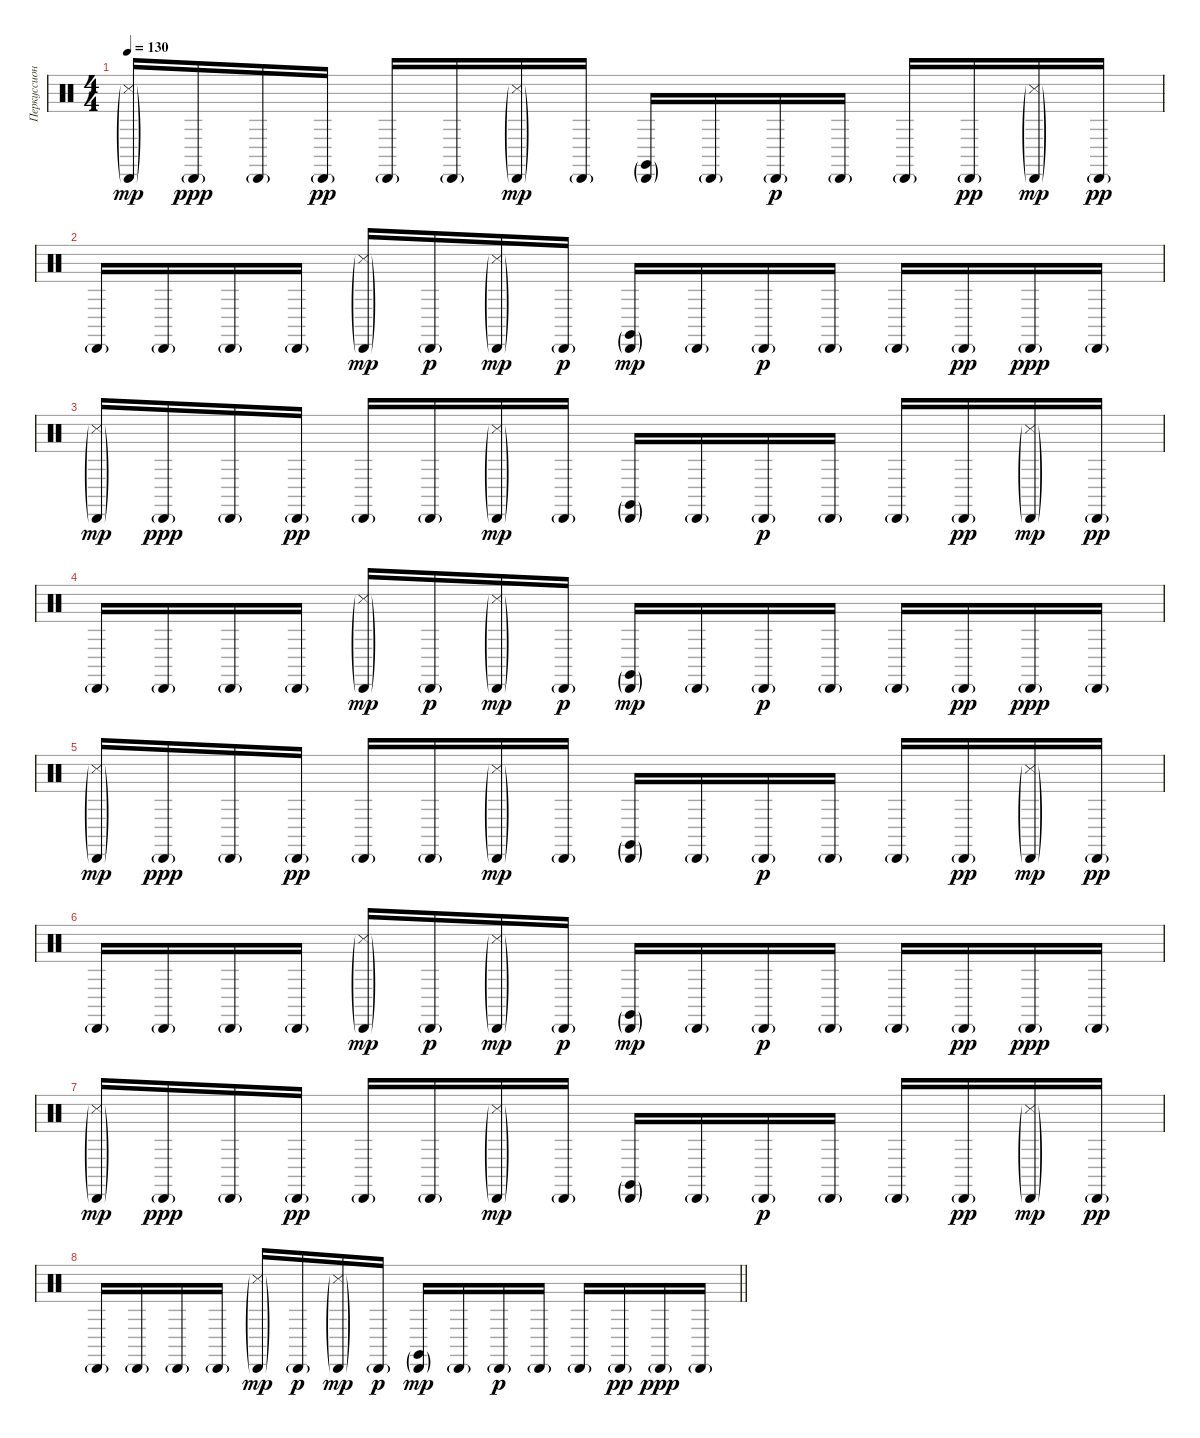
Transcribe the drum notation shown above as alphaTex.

\track ("Перкуссионный Синтез" "Перкуссион") {instrument percussion}
\staff {score}
\articulation defaults
\ts (4 4)
\tempo 130
\clef neutral
\ks c
("Cabasa (hit)"{g} "Metronome (hit)"{g}).16{dy mp} "Cabasa (hit)"{g}.16{dy ppp} "Cabasa (hit)"{g}.16 "Cabasa (hit)"{g}.16{dy pp} "Cabasa (hit)"{g}.16 "Cabasa (hit)"{g}.16 ("Cabasa (hit)"{g} "Metronome (hit)"{g}).16{dy mp} "Cabasa (hit)"{g}.16 ("Cabasa (hit)"{g} "Claves (hit)"{g}).16 "Cabasa (hit)"{g}.16 "Cabasa (hit)"{g}.16{dy p} "Cabasa (hit)"{g}.16 "Cabasa (hit)"{g}.16 "Cabasa (hit)"{g}.16{dy pp} ("Cabasa (hit)"{g} "Metronome (hit)"{g}).16{dy mp} "Cabasa (hit)"{g}.16{dy pp} |
"Cabasa (hit)"{g}.16 "Cabasa (hit)"{g}.16 "Cabasa (hit)"{g}.16 "Cabasa (hit)"{g}.16 ("Cabasa (hit)"{g} "Metronome (hit)"{g}).16{dy mp} "Cabasa (hit)"{g}.16{dy p} ("Cabasa (hit)"{g} "Metronome (hit)"{g}).16{dy mp} "Cabasa (hit)"{g}.16{dy p} ("Cabasa (hit)"{g} "Claves (hit)"{g}).16{dy mp} "Cabasa (hit)"{g}.16 "Cabasa (hit)"{g}.16{dy p} "Cabasa (hit)"{g}.16 "Cabasa (hit)"{g}.16 "Cabasa (hit)"{g}.16{dy pp} "Cabasa (hit)"{g}.16{dy ppp} "Cabasa (hit)"{g}.16 |
("Cabasa (hit)"{g} "Metronome (hit)"{g}).16{dy mp} "Cabasa (hit)"{g}.16{dy ppp} "Cabasa (hit)"{g}.16 "Cabasa (hit)"{g}.16{dy pp} "Cabasa (hit)"{g}.16 "Cabasa (hit)"{g}.16 ("Cabasa (hit)"{g} "Metronome (hit)"{g}).16{dy mp} "Cabasa (hit)"{g}.16 ("Cabasa (hit)"{g} "Claves (hit)"{g}).16 "Cabasa (hit)"{g}.16 "Cabasa (hit)"{g}.16{dy p} "Cabasa (hit)"{g}.16 "Cabasa (hit)"{g}.16 "Cabasa (hit)"{g}.16{dy pp} ("Cabasa (hit)"{g} "Metronome (hit)"{g}).16{dy mp} "Cabasa (hit)"{g}.16{dy pp} |
"Cabasa (hit)"{g}.16 "Cabasa (hit)"{g}.16 "Cabasa (hit)"{g}.16 "Cabasa (hit)"{g}.16 ("Cabasa (hit)"{g} "Metronome (hit)"{g}).16{dy mp} "Cabasa (hit)"{g}.16{dy p} ("Cabasa (hit)"{g} "Metronome (hit)"{g}).16{dy mp} "Cabasa (hit)"{g}.16{dy p} ("Cabasa (hit)"{g} "Claves (hit)"{g}).16{dy mp} "Cabasa (hit)"{g}.16 "Cabasa (hit)"{g}.16{dy p} "Cabasa (hit)"{g}.16 "Cabasa (hit)"{g}.16 "Cabasa (hit)"{g}.16{dy pp} "Cabasa (hit)"{g}.16{dy ppp} "Cabasa (hit)"{g}.16 |
("Cabasa (hit)"{g} "Metronome (hit)"{g}).16{dy mp} "Cabasa (hit)"{g}.16{dy ppp} "Cabasa (hit)"{g}.16 "Cabasa (hit)"{g}.16{dy pp} "Cabasa (hit)"{g}.16 "Cabasa (hit)"{g}.16 ("Cabasa (hit)"{g} "Metronome (hit)"{g}).16{dy mp} "Cabasa (hit)"{g}.16 ("Cabasa (hit)"{g} "Claves (hit)"{g}).16 "Cabasa (hit)"{g}.16 "Cabasa (hit)"{g}.16{dy p} "Cabasa (hit)"{g}.16 "Cabasa (hit)"{g}.16 "Cabasa (hit)"{g}.16{dy pp} ("Cabasa (hit)"{g} "Metronome (hit)"{g}).16{dy mp} "Cabasa (hit)"{g}.16{dy pp} |
"Cabasa (hit)"{g}.16 "Cabasa (hit)"{g}.16 "Cabasa (hit)"{g}.16 "Cabasa (hit)"{g}.16 ("Cabasa (hit)"{g} "Metronome (hit)"{g}).16{dy mp} "Cabasa (hit)"{g}.16{dy p} ("Cabasa (hit)"{g} "Metronome (hit)"{g}).16{dy mp} "Cabasa (hit)"{g}.16{dy p} ("Cabasa (hit)"{g} "Claves (hit)"{g}).16{dy mp} "Cabasa (hit)"{g}.16 "Cabasa (hit)"{g}.16{dy p} "Cabasa (hit)"{g}.16 "Cabasa (hit)"{g}.16 "Cabasa (hit)"{g}.16{dy pp} "Cabasa (hit)"{g}.16{dy ppp} "Cabasa (hit)"{g}.16 |
("Cabasa (hit)"{g} "Metronome (hit)"{g}).16{dy mp} "Cabasa (hit)"{g}.16{dy ppp} "Cabasa (hit)"{g}.16 "Cabasa (hit)"{g}.16{dy pp} "Cabasa (hit)"{g}.16 "Cabasa (hit)"{g}.16 ("Cabasa (hit)"{g} "Metronome (hit)"{g}).16{dy mp} "Cabasa (hit)"{g}.16 ("Cabasa (hit)"{g} "Claves (hit)"{g}).16 "Cabasa (hit)"{g}.16 "Cabasa (hit)"{g}.16{dy p} "Cabasa (hit)"{g}.16 "Cabasa (hit)"{g}.16 "Cabasa (hit)"{g}.16{dy pp} ("Cabasa (hit)"{g} "Metronome (hit)"{g}).16{dy mp} "Cabasa (hit)"{g}.16{dy pp} |
\barLineRight lightlight "Cabasa (hit)"{g}.16 "Cabasa (hit)"{g}.16 "Cabasa (hit)"{g}.16 "Cabasa (hit)"{g}.16
("Cabasa (hit)"{g} "Metronome (hit)"{g}).16{dy mp} "Cabasa (hit)"{g}.16{dy p} ("Cabasa (hit)"{g} "Metronome (hit)"{g}).16{dy mp} "Cabasa (hit)"{g}.16{dy p} ("Cabasa (hit)"{g} "Claves (hit)"{g}).16{dy mp} "Cabasa (hit)"{g}.16 "Cabasa (hit)"{g}.16{dy p} "Cabasa (hit)"{g}.16 "Cabasa (hit)"{g}.16 "Cabasa (hit)"{g}.16{dy pp} "Cabasa (hit)"{g}.16{dy ppp} "Cabasa (hit)"{g}.16
